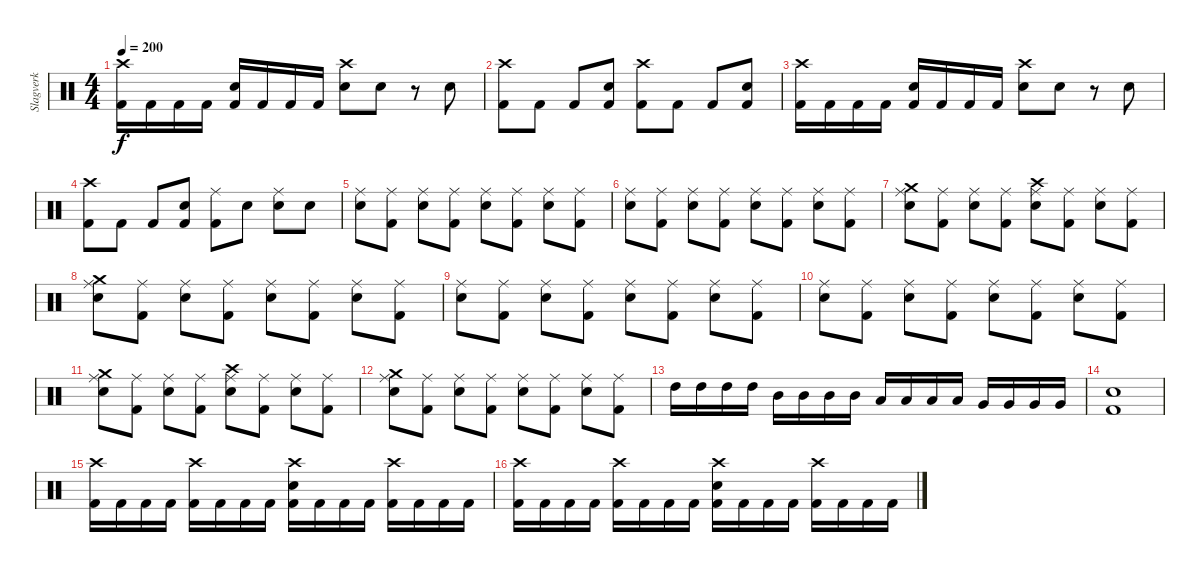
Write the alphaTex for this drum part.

\track ("Slagverk" "Slagverk") {instrument percussion}
\staff {score}
\articulation defaults
\ts (4 4)
\tempo 200
\clef neutral
\ks c
("Crash high (hit)" "Kick (hit) 2").16{dy f} "Kick (hit) 2".16 "Kick (hit) 2".16 "Kick (hit) 2".16 ("Snare (hit) 2" "Kick (hit) 2").16 "Kick (hit) 2".16 "Kick (hit) 2".16 "Kick (hit) 2".16 ("Snare (hit) 2" "Crash high (hit)").8 "Snare (hit) 2".8 r.8 "Snare (hit) 2".8 |
("Kick (hit) 2" "Crash high (hit)").8 "Kick (hit) 2".8 "Kick (hit) 2".8 ("Kick (hit) 2" "Snare (hit) 2").8 ("Kick (hit) 2" "Crash high (hit)").8 "Kick (hit) 2".8 "Kick (hit) 2".8 ("Kick (hit) 2" "Snare (hit) 2").8 |
("Crash high (hit)" "Kick (hit) 2").16 "Kick (hit) 2".16 "Kick (hit) 2".16 "Kick (hit) 2".16 ("Snare (hit) 2" "Kick (hit) 2").16 "Kick (hit) 2".16 "Kick (hit) 2".16 "Kick (hit) 2".16 ("Snare (hit) 2" "Crash high (hit)").8 "Snare (hit) 2".8 r.8 "Snare (hit) 2".8 |
("Kick (hit) 2" "Crash high (hit)").8 "Kick (hit) 2".8 "Kick (hit) 2".8 ("Kick (hit) 2" "Snare (hit) 2").8 ("Kick (hit) 2" "Ride (middle)").8 "Snare (hit) 2".8 ("Snare (hit) 2" "Ride (middle)").8 "Snare (hit) 2".8 |
("Ride (middle)" "Snare (hit) 2").8 ("Kick (hit) 2" "Ride (middle)").8 ("Ride (middle)" "Snare (hit) 2").8 ("Kick (hit) 2" "Ride (middle)").8 ("Ride (middle)" "Snare (hit) 2").8 ("Kick (hit) 2" "Ride (middle)").8 ("Ride (middle)" "Snare (hit) 2").8 ("Kick (hit) 2" "Ride (middle)").8 |
("Ride (middle)" "Snare (hit) 2").8 ("Kick (hit) 2" "Ride (middle)").8 ("Ride (middle)" "Snare (hit) 2").8 ("Kick (hit) 2" "Ride (middle)").8 ("Ride (middle)" "Snare (hit) 2").8 ("Kick (hit) 2" "Ride (middle)").8 ("Ride (middle)" "Snare (hit) 2").8 ("Kick (hit) 2" "Ride (middle)").8 |
("Ride (middle)" "Snare (hit) 2" "Crash medium (hit)").8 ("Kick (hit) 2" "Ride (middle)").8 ("Ride (middle)" "Snare (hit) 2").8 ("Kick (hit) 2" "Ride (middle)").8 ("Ride (middle)" "Snare (hit) 2" "Crash high (hit)").8 ("Kick (hit) 2" "Ride (middle)").8 ("Ride (middle)" "Snare (hit) 2").8 ("Kick (hit) 2" "Ride (middle)").8 |
("Ride (middle)" "Snare (hit) 2" "Crash medium (hit)").8 ("Kick (hit) 2" "Ride (middle)").8 ("Ride (middle)" "Snare (hit) 2").8 ("Kick (hit) 2" "Ride (middle)").8 ("Ride (middle)" "Snare (hit) 2").8 ("Kick (hit) 2" "Ride (middle)").8 ("Ride (middle)" "Snare (hit) 2").8 ("Kick (hit) 2" "Ride (middle)").8 |
("Ride (middle)" "Snare (hit) 2").8 ("Kick (hit) 2" "Ride (middle)").8 ("Ride (middle)" "Snare (hit) 2").8 ("Kick (hit) 2" "Ride (middle)").8 ("Ride (middle)" "Snare (hit) 2").8 ("Kick (hit) 2" "Ride (middle)").8 ("Ride (middle)" "Snare (hit) 2").8 ("Kick (hit) 2" "Ride (middle)").8 |
("Ride (middle)" "Snare (hit) 2").8 ("Kick (hit) 2" "Ride (middle)").8 ("Ride (middle)" "Snare (hit) 2").8 ("Kick (hit) 2" "Ride (middle)").8 ("Ride (middle)" "Snare (hit) 2").8 ("Kick (hit) 2" "Ride (middle)").8 ("Ride (middle)" "Snare (hit) 2").8 ("Kick (hit) 2" "Ride (middle)").8 |
("Ride (middle)" "Snare (hit) 2" "Crash medium (hit)").8 ("Kick (hit) 2" "Ride (middle)").8 ("Ride (middle)" "Snare (hit) 2").8 ("Kick (hit) 2" "Ride (middle)").8 ("Ride (middle)" "Snare (hit) 2" "Crash high (hit)").8 ("Kick (hit) 2" "Ride (middle)").8 ("Ride (middle)" "Snare (hit) 2").8 ("Kick (hit) 2" "Ride (middle)").8 |
("Ride (middle)" "Snare (hit) 2" "Crash medium (hit)").8 ("Kick (hit) 2" "Ride (middle)").8 ("Ride (middle)" "Snare (hit) 2").8 ("Kick (hit) 2" "Ride (middle)").8 ("Ride (middle)" "Snare (hit) 2").8 ("Kick (hit) 2" "Ride (middle)").8 ("Ride (middle)" "Snare (hit) 2").8 ("Kick (hit) 2" "Ride (middle)").8 |
"High Tom (hit)".16 "High Tom (hit)".16 "High Tom (hit)".16 "High Tom (hit)".16 "Mid Tom (hit)".16 "Mid Tom (hit)".16 "Mid Tom (hit)".16 "Mid Tom (hit)".16 "Low Tom (hit)".16 "Low Tom (hit)".16 "Low Tom (hit)".16 "Low Tom (hit)".16 "Very Low Tom (hit)".16 "Very Low Tom (hit)".16 "Very Low Tom (hit)".16 "Very Low Tom (hit)".16 |
("Snare (hit) 2" "Kick (hit) 2").1 |
("Crash high (hit)" "Kick (hit) 2").16 "Kick (hit) 2".16 "Kick (hit) 2".16 "Kick (hit) 2".16 ("Crash high (hit)" "Kick (hit) 2").16 "Kick (hit) 2".16 "Kick (hit) 2".16 "Kick (hit) 2".16 ("Crash high (hit)" "Kick (hit) 2" "Snare (hit) 2").16 "Kick (hit) 2".16 "Kick (hit) 2".16 "Kick (hit) 2".16 ("Crash high (hit)" "Kick (hit) 2").16 "Kick (hit) 2".16 "Kick (hit) 2".16 "Kick (hit) 2".16 |
("Crash high (hit)" "Kick (hit) 2").16 "Kick (hit) 2".16 "Kick (hit) 2".16 "Kick (hit) 2".16 ("Crash high (hit)" "Kick (hit) 2").16 "Kick (hit) 2".16 "Kick (hit) 2".16 "Kick (hit) 2".16 ("Crash high (hit)" "Kick (hit) 2" "Snare (hit) 2").16 "Kick (hit) 2".16 "Kick (hit) 2".16 "Kick (hit) 2".16 ("Crash high (hit)" "Kick (hit) 2").16 "Kick (hit) 2".16 "Kick (hit) 2".16 "Kick (hit) 2".16
